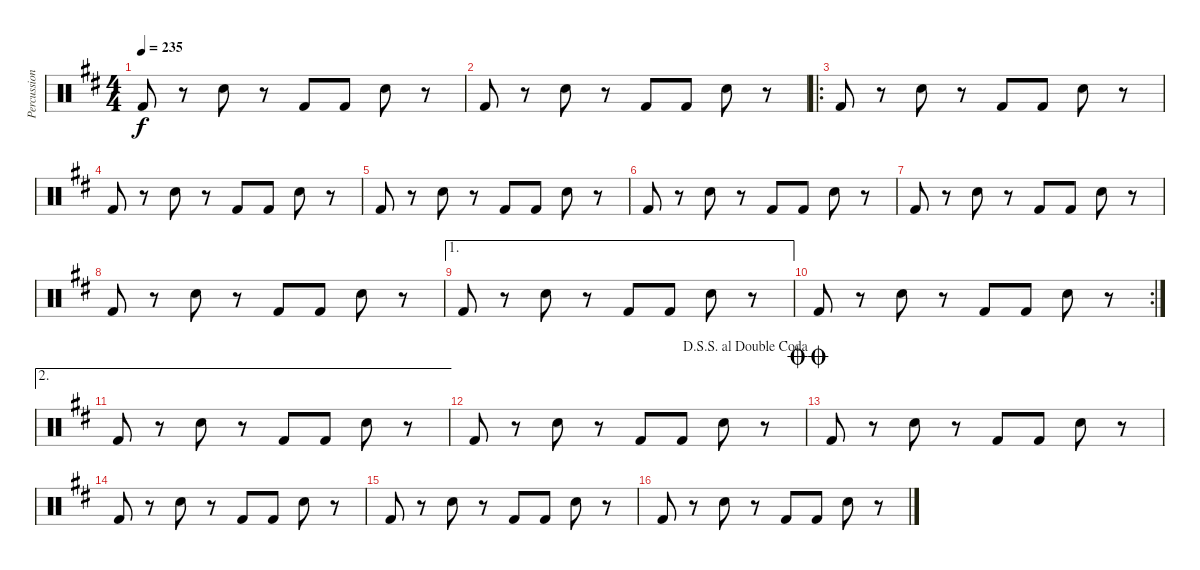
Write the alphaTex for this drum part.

\track ("Percussion" "Percussion") {instrument percussion}
\staff {score}
\articulation defaults
\ts (4 4)
\tempo 235
\clef neutral
\ks d "Kick (hit) 2".8{dy f}
r.8 "Snare (hit) 2".8 r.8 "Kick (hit) 2".8 "Kick (hit) 2".8 "Snare (hit) 2".8 r.8 |
"Kick (hit) 2".8 r.8 "Snare (hit) 2".8 r.8 "Kick (hit) 2".8 "Kick (hit) 2".8 "Snare (hit) 2".8 r.8 |
\ro "Kick (hit) 2".8
r.8 "Snare (hit) 2".8 r.8 "Kick (hit) 2".8 "Kick (hit) 2".8 "Snare (hit) 2".8 r.8 |
"Kick (hit) 2".8 r.8 "Snare (hit) 2".8 r.8 "Kick (hit) 2".8 "Kick (hit) 2".8 "Snare (hit) 2".8 r.8 |
"Kick (hit) 2".8 r.8 "Snare (hit) 2".8 r.8 "Kick (hit) 2".8 "Kick (hit) 2".8 "Snare (hit) 2".8 r.8 |
"Kick (hit) 2".8 r.8 "Snare (hit) 2".8 r.8 "Kick (hit) 2".8 "Kick (hit) 2".8 "Snare (hit) 2".8 r.8 |
"Kick (hit) 2".8 r.8 "Snare (hit) 2".8 r.8 "Kick (hit) 2".8 "Kick (hit) 2".8 "Snare (hit) 2".8 r.8 |
"Kick (hit) 2".8 r.8 "Snare (hit) 2".8 r.8 "Kick (hit) 2".8 "Kick (hit) 2".8 "Snare (hit) 2".8 r.8 |
\ae 1 "Kick (hit) 2".8
r.8 "Snare (hit) 2".8 r.8 "Kick (hit) 2".8 "Kick (hit) 2".8 "Snare (hit) 2".8 r.8 |
\rc 2 "Kick (hit) 2".8
r.8 "Snare (hit) 2".8 r.8 "Kick (hit) 2".8 "Kick (hit) 2".8 "Snare (hit) 2".8 r.8 |
\ae 2 "Kick (hit) 2".8
r.8 "Snare (hit) 2".8 r.8 "Kick (hit) 2".8 "Kick (hit) 2".8 "Snare (hit) 2".8 r.8 |
\jump dalsegnosegnoaldoublecoda "Kick (hit) 2".8
r.8 "Snare (hit) 2".8 r.8 "Kick (hit) 2".8 "Kick (hit) 2".8 "Snare (hit) 2".8 r.8 |
\jump doublecoda "Kick (hit) 2".8
r.8 "Snare (hit) 2".8 r.8 "Kick (hit) 2".8 "Kick (hit) 2".8 "Snare (hit) 2".8 r.8 |
"Kick (hit) 2".8 r.8 "Snare (hit) 2".8 r.8 "Kick (hit) 2".8 "Kick (hit) 2".8 "Snare (hit) 2".8 r.8 |
"Kick (hit) 2".8 r.8 "Snare (hit) 2".8 r.8 "Kick (hit) 2".8 "Kick (hit) 2".8 "Snare (hit) 2".8 r.8 |
"Kick (hit) 2".8 r.8 "Snare (hit) 2".8 r.8 "Kick (hit) 2".8 "Kick (hit) 2".8 "Snare (hit) 2".8 r.8
